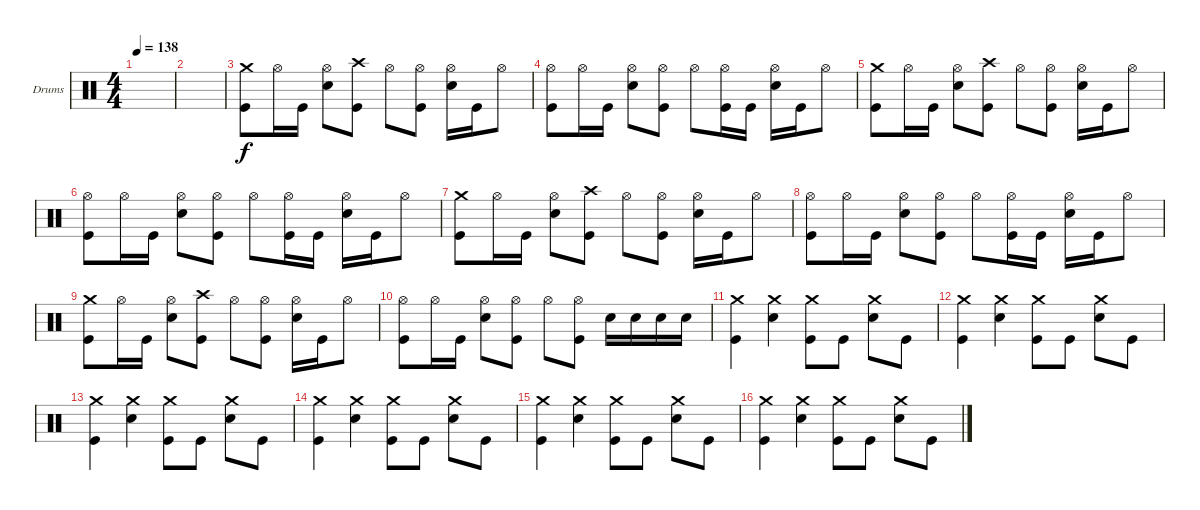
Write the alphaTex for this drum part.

\defaultSystemsLayout 4
\bracketExtendMode groupsimilarinstruments
\firstSystemTrackNameOrientation horizontal
\otherSystemsTrackNameOrientation horizontal
\track ("Drumkit" "Drums") {instrument percussion}
\staff {score}
\articulation defaults
\ts (4 4)
\tempo 138
\clef neutral
\ks c
|
|
("Kick (hit)" "Crash medium (hit)").8 "Hi-Hat (open)".16 "Kick (hit)".16 ("Hi-Hat (open)" "Snare (hit) 2").8 ("Kick (hit)" "Crash high (hit)").8 "Hi-Hat (open)".8 ("Hi-Hat (open)" "Kick (hit)").8 ("Hi-Hat (open)" "Snare (hit) 2").16 "Kick (hit)".16 "Hi-Hat (open)".8 |
("Kick (hit)" "Hi-Hat (open)").8 "Hi-Hat (open)".16 "Kick (hit)".16 ("Hi-Hat (open)" "Snare (hit) 2").8 ("Kick (hit)" "Hi-Hat (open)").8 "Hi-Hat (open)".8 ("Hi-Hat (open)" "Kick (hit)").16 "Kick (hit)".16 ("Hi-Hat (open)" "Snare (hit) 2").16 "Kick (hit)".16 "Hi-Hat (open)".8 |
("Kick (hit)" "Crash medium (hit)").8 "Hi-Hat (open)".16 "Kick (hit)".16 ("Hi-Hat (open)" "Snare (hit) 2").8 ("Kick (hit)" "Crash high (hit)").8 "Hi-Hat (open)".8 ("Hi-Hat (open)" "Kick (hit)").8 ("Hi-Hat (open)" "Snare (hit) 2").16 "Kick (hit)".16 "Hi-Hat (open)".8 |
("Kick (hit)" "Hi-Hat (open)").8 "Hi-Hat (open)".16 "Kick (hit)".16 ("Hi-Hat (open)" "Snare (hit) 2").8 ("Kick (hit)" "Hi-Hat (open)").8 "Hi-Hat (open)".8 ("Hi-Hat (open)" "Kick (hit)").16 "Kick (hit)".16 ("Hi-Hat (open)" "Snare (hit) 2").16 "Kick (hit)".16 "Hi-Hat (open)".8 |
("Kick (hit)" "Crash medium (hit)").8 "Hi-Hat (open)".16 "Kick (hit)".16 ("Hi-Hat (open)" "Snare (hit) 2").8 ("Kick (hit)" "Crash high (hit)").8 "Hi-Hat (open)".8 ("Hi-Hat (open)" "Kick (hit)").8 ("Hi-Hat (open)" "Snare (hit) 2").16 "Kick (hit)".16 "Hi-Hat (open)".8 |
("Kick (hit)" "Hi-Hat (open)").8 "Hi-Hat (open)".16 "Kick (hit)".16 ("Hi-Hat (open)" "Snare (hit) 2").8 ("Kick (hit)" "Hi-Hat (open)").8 "Hi-Hat (open)".8 ("Hi-Hat (open)" "Kick (hit)").16 "Kick (hit)".16 ("Hi-Hat (open)" "Snare (hit) 2").16 "Kick (hit)".16 "Hi-Hat (open)".8 |
("Kick (hit)" "Crash medium (hit)").8 "Hi-Hat (open)".16 "Kick (hit)".16 ("Hi-Hat (open)" "Snare (hit) 2").8 ("Kick (hit)" "Crash high (hit)").8 "Hi-Hat (open)".8 ("Hi-Hat (open)" "Kick (hit)").8 ("Hi-Hat (open)" "Snare (hit) 2").16 "Kick (hit)".16 "Hi-Hat (open)".8 |
("Kick (hit)" "Hi-Hat (open)").8 "Hi-Hat (open)".16 "Kick (hit)".16 ("Hi-Hat (open)" "Snare (hit) 2").8 ("Kick (hit)" "Hi-Hat (open)").8 "Hi-Hat (open)".8 ("Hi-Hat (open)" "Kick (hit)").8 "Snare (hit) 2".16 "Snare (hit) 2".16 "Snare (hit) 2".16 "Snare (hit) 2".16 |
("Kick (hit)" "Crash medium (hit)").4 ("Crash medium (hit)" "Snare (hit) 2").4 ("Kick (hit)" "Crash medium (hit)").8 "Kick (hit)".8 ("Crash medium (hit)" "Snare (hit) 2").8 "Kick (hit)".8 |
("Kick (hit)" "Crash medium (hit)").4 ("Crash medium (hit)" "Snare (hit) 2").4 ("Kick (hit)" "Crash medium (hit)").8 "Kick (hit)".8 ("Crash medium (hit)" "Snare (hit) 2").8 "Kick (hit)".8 |
("Kick (hit)" "Crash medium (hit)").4 ("Crash medium (hit)" "Snare (hit) 2").4 ("Kick (hit)" "Crash medium (hit)").8 "Kick (hit)".8 ("Crash medium (hit)" "Snare (hit) 2").8 "Kick (hit)".8 |
("Kick (hit)" "Crash medium (hit)").4 ("Crash medium (hit)" "Snare (hit) 2").4 ("Kick (hit)" "Crash medium (hit)").8 "Kick (hit)".8 ("Crash medium (hit)" "Snare (hit) 2").8 "Kick (hit)".8 |
("Kick (hit)" "Crash medium (hit)").4 ("Crash medium (hit)" "Snare (hit) 2").4 ("Kick (hit)" "Crash medium (hit)").8 "Kick (hit)".8 ("Crash medium (hit)" "Snare (hit) 2").8 "Kick (hit)".8 |
("Kick (hit)" "Crash medium (hit)").4 ("Crash medium (hit)" "Snare (hit) 2").4 ("Kick (hit)" "Crash medium (hit)").8 "Kick (hit)".8 ("Crash medium (hit)" "Snare (hit) 2").8 "Kick (hit)".8
